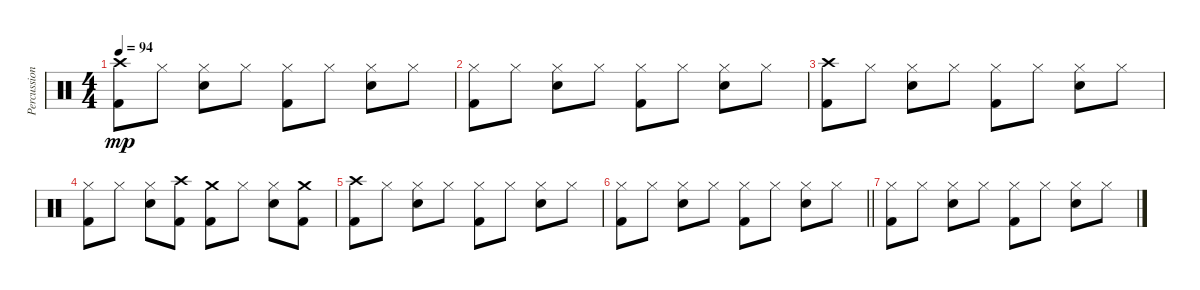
\track ("Percussion" "Percussion") {instrument percussion}
\staff {score}
\articulation defaults
\ts (4 4)
\tempo 94
\clef neutral
\ks c
("Crash high (hit)" "Kick (hit) 2").8{dy mp} "Hi-Hat (closed)".8 ("Hi-Hat (closed)" "Snare (hit) 2").8 "Hi-Hat (closed)".8 ("Hi-Hat (closed)" "Kick (hit) 2").8 "Hi-Hat (closed)".8 ("Hi-Hat (closed)" "Snare (hit) 2").8 "Hi-Hat (closed)".8 |
("Hi-Hat (closed)" "Kick (hit) 2").8 "Hi-Hat (closed)".8 ("Hi-Hat (closed)" "Snare (hit) 2").8 "Hi-Hat (closed)".8 ("Hi-Hat (closed)" "Kick (hit) 2").8 "Hi-Hat (closed)".8 ("Hi-Hat (closed)" "Snare (hit) 2").8 "Hi-Hat (closed)".8 |
("Crash high (hit)" "Kick (hit) 2").8 "Hi-Hat (closed)".8 ("Hi-Hat (closed)" "Snare (hit) 2").8 "Hi-Hat (closed)".8 ("Hi-Hat (closed)" "Kick (hit) 2").8 "Hi-Hat (closed)".8 ("Hi-Hat (closed)" "Snare (hit) 2").8 "Hi-Hat (closed)".8 |
("Hi-Hat (closed)" "Kick (hit) 2").8 "Hi-Hat (closed)".8 ("Hi-Hat (closed)" "Snare (hit) 2").8 ("Crash high (hit)" "Kick (hit) 2").8 ("Crash medium (hit)" "Kick (hit) 2").8 "Hi-Hat (closed)".8 ("Hi-Hat (closed)" "Snare (hit) 2").8 ("Crash medium (hit)" "Kick (hit) 2").8 |
("Crash high (hit)" "Kick (hit) 2").8 "Hi-Hat (closed)".8 ("Hi-Hat (closed)" "Snare (hit) 2").8 "Hi-Hat (closed)".8 ("Hi-Hat (closed)" "Kick (hit) 2").8 "Hi-Hat (closed)".8 ("Hi-Hat (closed)" "Snare (hit) 2").8 "Hi-Hat (closed)".8 |
\barLineRight lightlight
("Hi-Hat (closed)" "Kick (hit) 2").8 "Hi-Hat (closed)".8 ("Hi-Hat (closed)" "Snare (hit) 2").8 "Hi-Hat (closed)".8 ("Hi-Hat (closed)" "Kick (hit) 2").8 "Hi-Hat (closed)".8 ("Hi-Hat (closed)" "Snare (hit) 2").8 "Hi-Hat (closed)".8 |
("Hi-Hat (closed)" "Kick (hit) 2").8 "Hi-Hat (closed)".8 ("Hi-Hat (closed)" "Snare (hit) 2").8 "Hi-Hat (closed)".8 ("Hi-Hat (closed)" "Kick (hit) 2").8 "Hi-Hat (closed)".8 ("Hi-Hat (closed)" "Snare (hit) 2").8 "Hi-Hat (closed)".8
